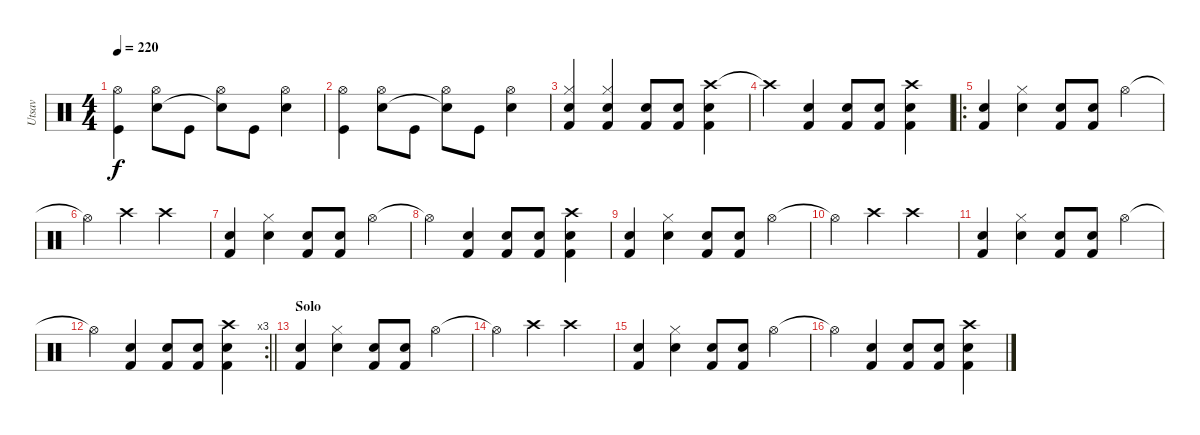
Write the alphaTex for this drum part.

\track ("Utsav" "Utsav") {instrument percussion}
\staff {score}
\articulation defaults
\ts (4 4)
\tempo 220
\clef neutral
\ks c
("Hi-Hat (open)" "Kick (hit)").4{dy f} ("Hi-Hat (open)" "Electric Snare (hit)").8 "Kick (hit)".8 ("Hi-Hat (open)" "Snare (hit)"{t}).8 "Kick (hit)".8 ("Hi-Hat (open)" "Electric Snare (hit)").4 |
("Hi-Hat (open)" "Kick (hit)").4 ("Hi-Hat (open)" "Electric Snare (hit)").8 "Kick (hit)".8 ("Hi-Hat (open)" "Snare (hit)"{t}).8 "Kick (hit)".8 ("Hi-Hat (open)" "Electric Snare (hit)").4 |
("Snare (hit) 2" "Hi-Hat (closed)" "Kick (hit) 2").4 ("Snare (hit) 2" "Hi-Hat (closed)" "Kick (hit) 2").4 ("Snare (hit) 2" "Kick (hit) 2").8 ("Snare (hit) 2" "Kick (hit) 2").8 ("Crash high (hit)" "Snare (hit) 2" "Kick (hit) 2").4 |
"Crash high (hit)"{t}.4 ("Kick (hit) 2" "Snare (hit) 2").4 ("Kick (hit) 2" "Snare (hit) 2").8 ("Kick (hit) 2" "Snare (hit) 2").8 ("Crash high (hit)" "Kick (hit) 2" "Snare (hit) 2").4 |
\ro
("Electric Snare (hit)" "Kick (hit) 2").4 ("Hi-Hat (closed)" "Snare (hit) 2").4 ("Electric Snare (hit)" "Kick (hit) 2").8 ("Electric Snare (hit)" "Kick (hit) 2").8 "Hi-Hat (open)".4 |
"Hi-Hat (open)"{t}.4 "Crash high (hit)".4 "Crash high (hit)".2 |
("Electric Snare (hit)" "Kick (hit) 2").4 ("Hi-Hat (closed)" "Snare (hit) 2").4 ("Electric Snare (hit)" "Kick (hit) 2").8 ("Electric Snare (hit)" "Kick (hit) 2").8 "Hi-Hat (open)".4 |
"Hi-Hat (open)"{t}.4 ("Snare (hit) 2" "Kick (hit) 2").4 ("Snare (hit) 2" "Kick (hit) 2").8 ("Snare (hit) 2" "Kick (hit) 2").8 ("Crash high (hit)" "Snare (hit) 2" "Kick (hit) 2").4 |
("Electric Snare (hit)" "Kick (hit) 2").4 ("Hi-Hat (closed)" "Snare (hit) 2").4 ("Electric Snare (hit)" "Kick (hit) 2").8 ("Electric Snare (hit)" "Kick (hit) 2").8 "Hi-Hat (open)".4 |
"Hi-Hat (open)"{t}.4 "Crash high (hit)".4 "Crash high (hit)".2 |
("Electric Snare (hit)" "Kick (hit) 2").4 ("Hi-Hat (closed)" "Snare (hit) 2").4 ("Electric Snare (hit)" "Kick (hit) 2").8 ("Electric Snare (hit)" "Kick (hit) 2").8 "Hi-Hat (open)".4 |
\rc 3
\barLineRight lightlight "Hi-Hat (open)"{t}.4
("Snare (hit) 2" "Kick (hit) 2").4 ("Snare (hit) 2" "Kick (hit) 2").8 ("Snare (hit) 2" "Kick (hit) 2").8 ("Crash high (hit)" "Snare (hit) 2" "Kick (hit) 2").4 |
\section ("" "Solo")
("Electric Snare (hit)" "Kick (hit) 2").4 ("Hi-Hat (closed)" "Snare (hit) 2").4 ("Electric Snare (hit)" "Kick (hit) 2").8 ("Electric Snare (hit)" "Kick (hit) 2").8 "Hi-Hat (open)".4 |
"Hi-Hat (open)"{t}.4 "Crash high (hit)".4 "Crash high (hit)".2 |
("Electric Snare (hit)" "Kick (hit) 2").4 ("Hi-Hat (closed)" "Snare (hit) 2").4 ("Electric Snare (hit)" "Kick (hit) 2").8 ("Electric Snare (hit)" "Kick (hit) 2").8 "Hi-Hat (open)".4 |
"Hi-Hat (open)"{t}.4 ("Snare (hit) 2" "Kick (hit) 2").4 ("Snare (hit) 2" "Kick (hit) 2").8 ("Snare (hit) 2" "Kick (hit) 2").8 ("Crash high (hit)" "Snare (hit) 2" "Kick (hit) 2").4
